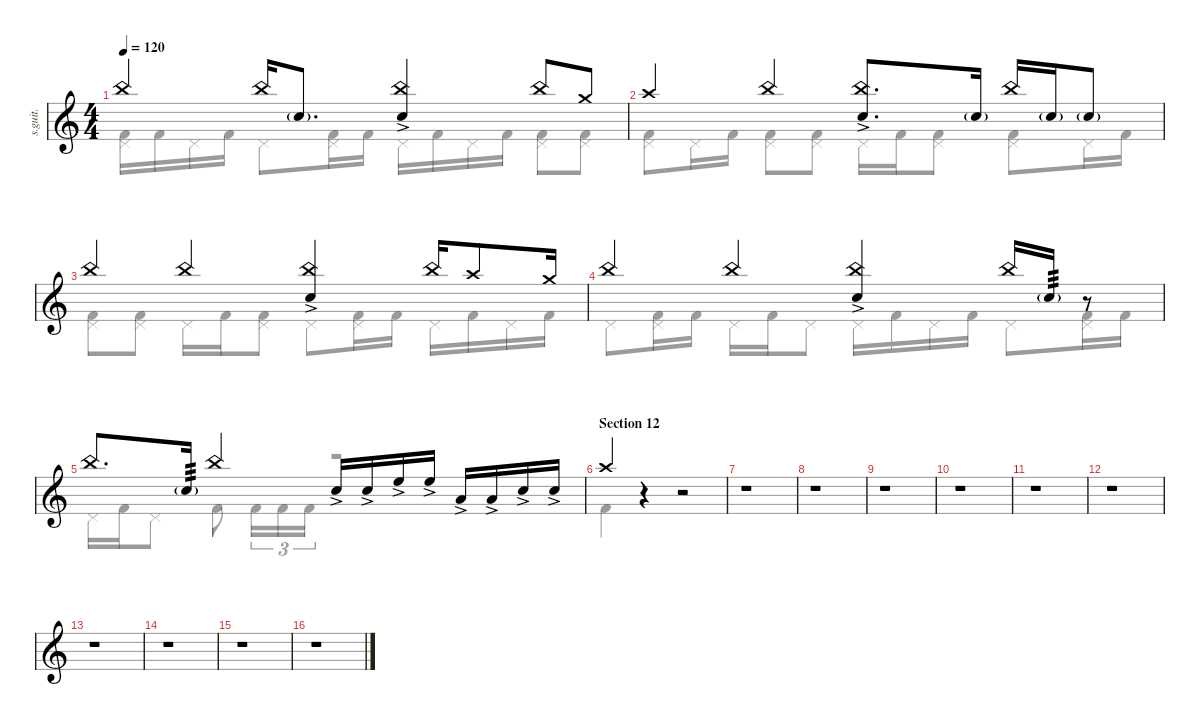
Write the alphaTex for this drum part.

\defaultSystemsLayout 4
\hideDynamics
\bracketExtendMode nobrackets
\track ("Matt Halpern" "s.guit.") {instrument percussion}
\staff {score}
\articulation defaults
\voice
\ts (4 4)
\tempo 120
\clef g2
\ks c "China (hit)".4{lyrics (0 "") lyrics (1 "") lyrics (2 "") lyrics (3 "") lyrics (4 "") dy f} "China (hit)".16{lyrics (0 "") lyrics (1 "") lyrics (2 "") lyrics (3 "") lyrics (4 "")} "Snare (hit) 2"{g}.8{d lyrics (0 "") lyrics (1 "") lyrics (2 "") lyrics (3 "") lyrics (4 "")}
("China (hit)" "Snare (hit) 2"{ac}).4{lyrics (0 "") lyrics (1 "") lyrics (2 "") lyrics (3 "") lyrics (4 "")} "China (hit)".8{lyrics (0 "") lyrics (1 "") lyrics (2 "") lyrics (3 "") lyrics (4 "")} "Crash medium (hit)".8{lyrics (0 "") lyrics (1 "") lyrics (2 "") lyrics (3 "") lyrics (4 "")} |
"Crash high (hit)".4{lyrics (0 "") lyrics (1 "") lyrics (2 "") lyrics (3 "") lyrics (4 "")} "China (hit)".4{lyrics (0 "") lyrics (1 "") lyrics (2 "") lyrics (3 "") lyrics (4 "")} ("China (hit)" "Snare (hit) 2"{ac}).8{d lyrics (0 "") lyrics (1 "") lyrics (2 "") lyrics (3 "") lyrics (4 "")} "Snare (hit) 2"{g}.16{lyrics (0 "") lyrics (1 "") lyrics (2 "") lyrics (3 "") lyrics (4 "")} "China (hit)".16{lyrics (0 "") lyrics (1 "") lyrics (2 "") lyrics (3 "") lyrics (4 "")} "Snare (hit) 2"{g}.16{lyrics (0 "") lyrics (1 "") lyrics (2 "") lyrics (3 "") lyrics (4 "")} "Snare (hit) 2"{g}.8{lyrics (0 "") lyrics (1 "") lyrics (2 "") lyrics (3 "") lyrics (4 "")} |
"China (hit)".4{lyrics (0 "") lyrics (1 "") lyrics (2 "") lyrics (3 "") lyrics (4 "")} "China (hit)".4{lyrics (0 "") lyrics (1 "") lyrics (2 "") lyrics (3 "") lyrics (4 "")} ("Snare (hit) 2"{ac} "China (hit)").4{lyrics (0 "") lyrics (1 "") lyrics (2 "") lyrics (3 "") lyrics (4 "")} "China (hit)".16{lyrics (0 "") lyrics (1 "") lyrics (2 "") lyrics (3 "") lyrics (4 "")} "Crash high (hit)".8{lyrics (0 "") lyrics (1 "") lyrics (2 "") lyrics (3 "") lyrics (4 "")} "Crash medium (hit)".16{lyrics (0 "") lyrics (1 "") lyrics (2 "") lyrics (3 "") lyrics (4 "")} |
"China (hit)".4{lyrics (0 "") lyrics (1 "") lyrics (2 "") lyrics (3 "") lyrics (4 "")} "China (hit)".4{lyrics (0 "") lyrics (1 "") lyrics (2 "") lyrics (3 "") lyrics (4 "")} ("China (hit)" "Snare (hit) 2"{ac}).4{lyrics (0 "") lyrics (1 "") lyrics (2 "") lyrics (3 "") lyrics (4 "")} "China (hit)".16{lyrics (0 "") lyrics (1 "") lyrics (2 "") lyrics (3 "") lyrics (4 "")} "Snare (hit) 2"{g}.16{lyrics (0 "") lyrics (1 "") lyrics (2 "") lyrics (3 "") lyrics (4 "") tp 3} r.8 |
"China (hit)".8{d lyrics (0 "") lyrics (1 "") lyrics (2 "") lyrics (3 "") lyrics (4 "")} "Snare (hit) 2"{g}.16{lyrics (0 "") lyrics (1 "") lyrics (2 "") lyrics (3 "") lyrics (4 "") tp 3} "China (hit)".4{lyrics (0 "") lyrics (1 "") lyrics (2 "") lyrics (3 "") lyrics (4 "")} "Snare (hit) 2"{ac}.16{lyrics (0 "") lyrics (1 "") lyrics (2 "") lyrics (3 "") lyrics (4 "")} "Snare (hit) 2"{ac}.16{lyrics (0 "") lyrics (1 "") lyrics (2 "") lyrics (3 "") lyrics (4 "")} "High Floor Tom (hit)"{ac}.16{lyrics (0 "") lyrics (1 "") lyrics (2 "") lyrics (3 "") lyrics (4 "")} "High Floor Tom (hit)"{ac}.16{lyrics (0 "") lyrics (1 "") lyrics (2 "") lyrics (3 "") lyrics (4 "")} "Low Tom (hit)"{ac}.16{lyrics (0 "") lyrics (1 "") lyrics (2 "") lyrics (3 "") lyrics (4 "")} "Low Tom (hit)"{ac}.16{lyrics (0 "") lyrics (1 "") lyrics (2 "") lyrics (3 "") lyrics (4 "")} "Snare (hit) 2"{ac}.16{lyrics (0 "") lyrics (1 "") lyrics (2 "") lyrics (3 "") lyrics (4 "")} "Snare (hit) 2"{ac}.16{lyrics (0 "") lyrics (1 "") lyrics (2 "") lyrics (3 "") lyrics (4 "")} |
\section ("" "Section 12")
"Crash high (hit)".4{lyrics (0 "") lyrics (1 "") lyrics (2 "") lyrics (3 "") lyrics (4 "")} r.4 r.2 |
r.1 |
r.1 |
r.1 |
r.1 |
r.1 |
r.1 |
r.1 |
r.1 |
r.1 |
r.1
\voice
\clef g2
\ottava regular
\simile none
\ks c
("Pedal Hi-Hat (hit)" "Kick (hit) 2").16{lyrics (0 "") lyrics (1 "") lyrics (2 "") lyrics (3 "") lyrics (4 "") dy f} "Kick (hit) 2".16{lyrics (0 "") lyrics (1 "") lyrics (2 "") lyrics (3 "") lyrics (4 "")} "Pedal Hi-Hat (hit)".16{lyrics (0 "") lyrics (1 "") lyrics (2 "") lyrics (3 "") lyrics (4 "")} "Kick (hit) 2".16{lyrics (0 "") lyrics (1 "") lyrics (2 "") lyrics (3 "") lyrics (4 "")} "Pedal Hi-Hat (hit)".8{lyrics (0 "") lyrics (1 "") lyrics (2 "") lyrics (3 "") lyrics (4 "")} ("Pedal Hi-Hat (hit)" "Kick (hit) 2").16{lyrics (0 "") lyrics (1 "") lyrics (2 "") lyrics (3 "") lyrics (4 "")} "Kick (hit) 2".16{lyrics (0 "") lyrics (1 "") lyrics (2 "") lyrics (3 "") lyrics (4 "")} "Pedal Hi-Hat (hit)".16{lyrics (0 "") lyrics (1 "") lyrics (2 "") lyrics (3 "") lyrics (4 "")} "Kick (hit) 2".16{lyrics (0 "") lyrics (1 "") lyrics (2 "") lyrics (3 "") lyrics (4 "")} "Pedal Hi-Hat (hit)".16{lyrics (0 "") lyrics (1 "") lyrics (2 "") lyrics (3 "") lyrics (4 "")} "Kick (hit) 2".16{lyrics (0 "") lyrics (1 "") lyrics (2 "") lyrics (3 "") lyrics (4 "")} ("Kick (hit) 2" "Pedal Hi-Hat (hit)").8{lyrics (0 "") lyrics (1 "") lyrics (2 "") lyrics (3 "") lyrics (4 "")} ("Pedal Hi-Hat (hit)" "Kick (hit) 2").8{lyrics (0 "") lyrics (1 "") lyrics (2 "") lyrics (3 "") lyrics (4 "")} |
("Kick (hit) 2" "Pedal Hi-Hat (hit)").8{lyrics (0 "") lyrics (1 "") lyrics (2 "") lyrics (3 "") lyrics (4 "")} "Pedal Hi-Hat (hit)".16{lyrics (0 "") lyrics (1 "") lyrics (2 "") lyrics (3 "") lyrics (4 "")} "Kick (hit) 2".16{lyrics (0 "") lyrics (1 "") lyrics (2 "") lyrics (3 "") lyrics (4 "")} ("Pedal Hi-Hat (hit)" "Kick (hit) 2").8{lyrics (0 "") lyrics (1 "") lyrics (2 "") lyrics (3 "") lyrics (4 "")} ("Kick (hit) 2" "Pedal Hi-Hat (hit)").8{lyrics (0 "") lyrics (1 "") lyrics (2 "") lyrics (3 "") lyrics (4 "")} "Pedal Hi-Hat (hit)".16{lyrics (0 "") lyrics (1 "") lyrics (2 "") lyrics (3 "") lyrics (4 "")} "Kick (hit) 2".16{lyrics (0 "") lyrics (1 "") lyrics (2 "") lyrics (3 "") lyrics (4 "")} ("Kick (hit) 2" "Pedal Hi-Hat (hit)").8{lyrics (0 "") lyrics (1 "") lyrics (2 "") lyrics (3 "") lyrics (4 "")} ("Pedal Hi-Hat (hit)" "Kick (hit) 2").8{lyrics (0 "") lyrics (1 "") lyrics (2 "") lyrics (3 "") lyrics (4 "")} "Pedal Hi-Hat (hit)".16{lyrics (0 "") lyrics (1 "") lyrics (2 "") lyrics (3 "") lyrics (4 "")} "Kick (hit) 2".16{lyrics (0 "") lyrics (1 "") lyrics (2 "") lyrics (3 "") lyrics (4 "")} |
("Kick (hit) 2" "Pedal Hi-Hat (hit)").8{lyrics (0 "") lyrics (1 "") lyrics (2 "") lyrics (3 "") lyrics (4 "")} ("Kick (hit) 2" "Pedal Hi-Hat (hit)").8{lyrics (0 "") lyrics (1 "") lyrics (2 "") lyrics (3 "") lyrics (4 "")} "Pedal Hi-Hat (hit)".16{lyrics (0 "") lyrics (1 "") lyrics (2 "") lyrics (3 "") lyrics (4 "")} "Kick (hit) 2".16{lyrics (0 "") lyrics (1 "") lyrics (2 "") lyrics (3 "") lyrics (4 "")} ("Kick (hit) 2" "Pedal Hi-Hat (hit)").8{lyrics (0 "") lyrics (1 "") lyrics (2 "") lyrics (3 "") lyrics (4 "")} "Pedal Hi-Hat (hit)".8{lyrics (0 "") lyrics (1 "") lyrics (2 "") lyrics (3 "") lyrics (4 "")} ("Kick (hit) 2" "Pedal Hi-Hat (hit)").16{lyrics (0 "") lyrics (1 "") lyrics (2 "") lyrics (3 "") lyrics (4 "")} "Kick (hit) 2".16{lyrics (0 "") lyrics (1 "") lyrics (2 "") lyrics (3 "") lyrics (4 "")} "Pedal Hi-Hat (hit)".16{lyrics (0 "") lyrics (1 "") lyrics (2 "") lyrics (3 "") lyrics (4 "")} "Kick (hit) 2".16{lyrics (0 "") lyrics (1 "") lyrics (2 "") lyrics (3 "") lyrics (4 "")} "Pedal Hi-Hat (hit)".16{lyrics (0 "") lyrics (1 "") lyrics (2 "") lyrics (3 "") lyrics (4 "")} "Kick (hit) 2".16{lyrics (0 "") lyrics (1 "") lyrics (2 "") lyrics (3 "") lyrics (4 "")} |
"Pedal Hi-Hat (hit)".8{lyrics (0 "") lyrics (1 "") lyrics (2 "") lyrics (3 "") lyrics (4 "")} ("Pedal Hi-Hat (hit)" "Kick (hit) 2").16{lyrics (0 "") lyrics (1 "") lyrics (2 "") lyrics (3 "") lyrics (4 "")} "Kick (hit) 2".16{lyrics (0 "") lyrics (1 "") lyrics (2 "") lyrics (3 "") lyrics (4 "")} "Pedal Hi-Hat (hit)".16{lyrics (0 "") lyrics (1 "") lyrics (2 "") lyrics (3 "") lyrics (4 "")} "Kick (hit) 2".16{lyrics (0 "") lyrics (1 "") lyrics (2 "") lyrics (3 "") lyrics (4 "")} "Pedal Hi-Hat (hit)".8{lyrics (0 "") lyrics (1 "") lyrics (2 "") lyrics (3 "") lyrics (4 "")} "Pedal Hi-Hat (hit)".16{lyrics (0 "") lyrics (1 "") lyrics (2 "") lyrics (3 "") lyrics (4 "")} "Kick (hit) 2".16{lyrics (0 "") lyrics (1 "") lyrics (2 "") lyrics (3 "") lyrics (4 "")} "Pedal Hi-Hat (hit)".16{lyrics (0 "") lyrics (1 "") lyrics (2 "") lyrics (3 "") lyrics (4 "")} "Kick (hit) 2".16{lyrics (0 "") lyrics (1 "") lyrics (2 "") lyrics (3 "") lyrics (4 "")} "Pedal Hi-Hat (hit)".8{lyrics (0 "") lyrics (1 "") lyrics (2 "") lyrics (3 "") lyrics (4 "")} ("Pedal Hi-Hat (hit)" "Kick (hit) 2").16{lyrics (0 "") lyrics (1 "") lyrics (2 "") lyrics (3 "") lyrics (4 "")} "Kick (hit) 2".16{lyrics (0 "") lyrics (1 "") lyrics (2 "") lyrics (3 "") lyrics (4 "")} |
"Pedal Hi-Hat (hit)".16{lyrics (0 "") lyrics (1 "") lyrics (2 "") lyrics (3 "") lyrics (4 "")} "Kick (hit) 2".16{lyrics (0 "") lyrics (1 "") lyrics (2 "") lyrics (3 "") lyrics (4 "")} "Pedal Hi-Hat (hit)".8{lyrics (0 "") lyrics (1 "") lyrics (2 "") lyrics (3 "") lyrics (4 "")} "Kick (hit) 2".8{lyrics (0 "") lyrics (1 "") lyrics (2 "") lyrics (3 "") lyrics (4 "")} "Kick (hit) 2".16{tu (3 2) lyrics (0 "") lyrics (1 "") lyrics (2 "") lyrics (3 "") lyrics (4 "")} "Kick (hit) 2".16{tu (3 2) lyrics (0 "") lyrics (1 "") lyrics (2 "") lyrics (3 "") lyrics (4 "")} "Kick (hit) 2".16{tu (3 2) lyrics (0 "") lyrics (1 "") lyrics (2 "") lyrics (3 "") lyrics (4 "")} r.2 |
"Kick (hit) 2".4{lyrics (0 "") lyrics (1 "") lyrics (2 "") lyrics (3 "") lyrics (4 "")} r.4 r.2 |
r.1 |
r.1 |
r.1 |
r.1 |
r.1 |
r.1 |
r.1 |
r.1 |
r.1 |
r.1
